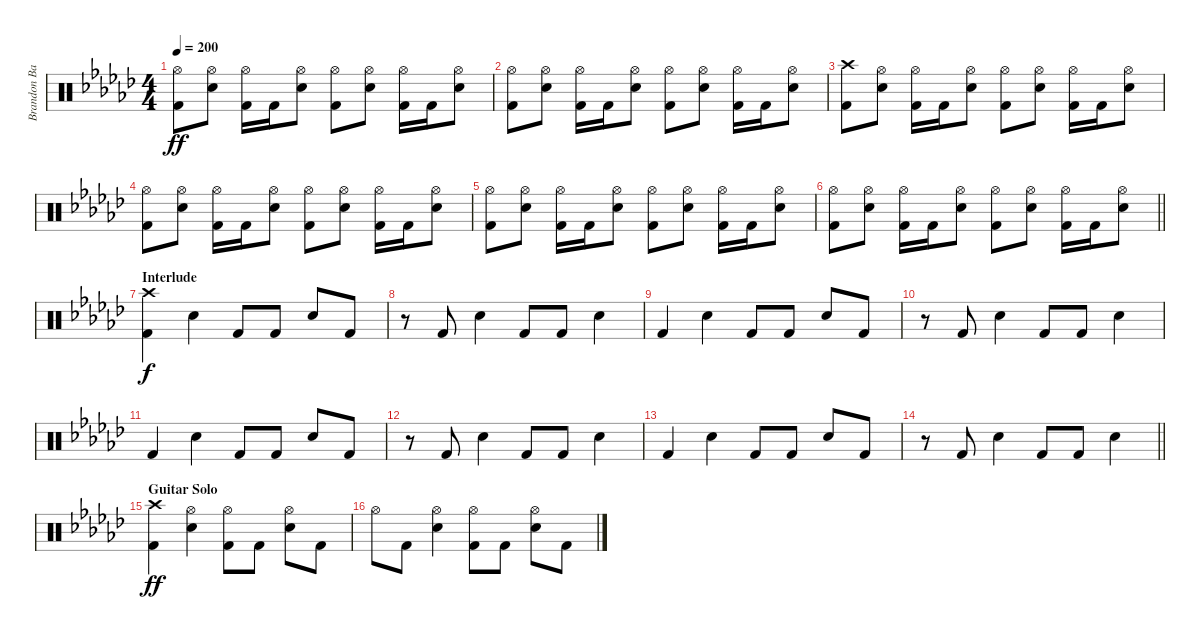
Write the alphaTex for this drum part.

\track ("Brandon Barnes - Drums" "Brandon Ba") {instrument percussion}
\staff {score}
\articulation defaults
\ts (4 4)
\tempo 200
\clef neutral
\ks ebminor
("Kick (hit) 2" "Hi-Hat (open)").8{dy ff} ("Snare (hit) 2" "Hi-Hat (open)").8 ("Kick (hit) 2" "Hi-Hat (open)").16 "Kick (hit) 2".16 ("Snare (hit) 2" "Hi-Hat (open)").8 ("Kick (hit) 2" "Hi-Hat (open)").8 ("Snare (hit) 2" "Hi-Hat (open)").8 ("Kick (hit) 2" "Hi-Hat (open)").16 "Kick (hit) 2".16 ("Snare (hit) 2" "Hi-Hat (open)").8 |
("Kick (hit) 2" "Hi-Hat (open)").8 ("Snare (hit) 2" "Hi-Hat (open)").8 ("Kick (hit) 2" "Hi-Hat (open)").16 "Kick (hit) 2".16 ("Snare (hit) 2" "Hi-Hat (open)").8 ("Kick (hit) 2" "Hi-Hat (open)").8 ("Snare (hit) 2" "Hi-Hat (open)").8 ("Kick (hit) 2" "Hi-Hat (open)").16 "Kick (hit) 2".16 ("Snare (hit) 2" "Hi-Hat (open)").8 |
("Crash high (hit)" "Kick (hit) 2").8 ("Snare (hit) 2" "Hi-Hat (open)").8 ("Kick (hit) 2" "Hi-Hat (open)").16 "Kick (hit) 2".16 ("Snare (hit) 2" "Hi-Hat (open)").8 ("Kick (hit) 2" "Hi-Hat (open)").8 ("Snare (hit) 2" "Hi-Hat (open)").8 ("Kick (hit) 2" "Hi-Hat (open)").16 "Kick (hit) 2".16 ("Snare (hit) 2" "Hi-Hat (open)").8 |
("Kick (hit) 2" "Hi-Hat (open)").8 ("Snare (hit) 2" "Hi-Hat (open)").8 ("Kick (hit) 2" "Hi-Hat (open)").16 "Kick (hit) 2".16 ("Snare (hit) 2" "Hi-Hat (open)").8 ("Kick (hit) 2" "Hi-Hat (open)").8 ("Snare (hit) 2" "Hi-Hat (open)").8 ("Kick (hit) 2" "Hi-Hat (open)").16 "Kick (hit) 2".16 ("Snare (hit) 2" "Hi-Hat (open)").8 |
("Kick (hit) 2" "Hi-Hat (open)").8 ("Snare (hit) 2" "Hi-Hat (open)").8 ("Kick (hit) 2" "Hi-Hat (open)").16 "Kick (hit) 2".16 ("Snare (hit) 2" "Hi-Hat (open)").8 ("Kick (hit) 2" "Hi-Hat (open)").8 ("Snare (hit) 2" "Hi-Hat (open)").8 ("Kick (hit) 2" "Hi-Hat (open)").16 "Kick (hit) 2".16 ("Snare (hit) 2" "Hi-Hat (open)").8 |
\barLineRight lightlight
("Kick (hit) 2" "Hi-Hat (open)").8 ("Snare (hit) 2" "Hi-Hat (open)").8 ("Kick (hit) 2" "Hi-Hat (open)").16 "Kick (hit) 2".16 ("Snare (hit) 2" "Hi-Hat (open)").8 ("Kick (hit) 2" "Hi-Hat (open)").8 ("Snare (hit) 2" "Hi-Hat (open)").8 ("Kick (hit) 2" "Hi-Hat (open)").16 "Kick (hit) 2".16 ("Snare (hit) 2" "Hi-Hat (open)").8 |
\section ("" "Interlude")
("Kick (hit) 2" "Crash high (hit)").4{dy f} "Snare (hit) 2".4 "Kick (hit) 2".8 "Kick (hit) 2".8 "Snare (hit) 2".8 "Kick (hit) 2".8 |
r.8 "Kick (hit) 2".8 "Snare (hit) 2".4 "Kick (hit) 2".8 "Kick (hit) 2".8 "Snare (hit) 2".4 |
"Kick (hit) 2".4 "Snare (hit) 2".4 "Kick (hit) 2".8 "Kick (hit) 2".8 "Snare (hit) 2".8 "Kick (hit) 2".8 |
r.8 "Kick (hit) 2".8 "Snare (hit) 2".4 "Kick (hit) 2".8 "Kick (hit) 2".8 "Snare (hit) 2".4 |
"Kick (hit) 2".4 "Snare (hit) 2".4 "Kick (hit) 2".8 "Kick (hit) 2".8 "Snare (hit) 2".8 "Kick (hit) 2".8 |
r.8 "Kick (hit) 2".8 "Snare (hit) 2".4 "Kick (hit) 2".8 "Kick (hit) 2".8 "Snare (hit) 2".4 |
"Kick (hit) 2".4 "Snare (hit) 2".4 "Kick (hit) 2".8 "Kick (hit) 2".8 "Snare (hit) 2".8 "Kick (hit) 2".8 |
\barLineRight lightlight
r.8 "Kick (hit) 2".8 "Snare (hit) 2".4 "Kick (hit) 2".8 "Kick (hit) 2".8 "Snare (hit) 2".4 |
\section ("" "Guitar Solo")
("Kick (hit) 2" "Crash high (hit)").4{dy ff} ("Snare (hit) 2" "Hi-Hat (open)").4 ("Kick (hit) 2" "Hi-Hat (open)").8 "Kick (hit) 2".8 ("Snare (hit) 2" "Hi-Hat (open)").8 "Kick (hit) 2".8 |
"Hi-Hat (open)".8 "Kick (hit) 2".8 ("Snare (hit) 2" "Hi-Hat (open)").4 ("Kick (hit) 2" "Hi-Hat (open)").8 "Kick (hit) 2".8 ("Snare (hit) 2" "Hi-Hat (open)").8 "Kick (hit) 2".8
